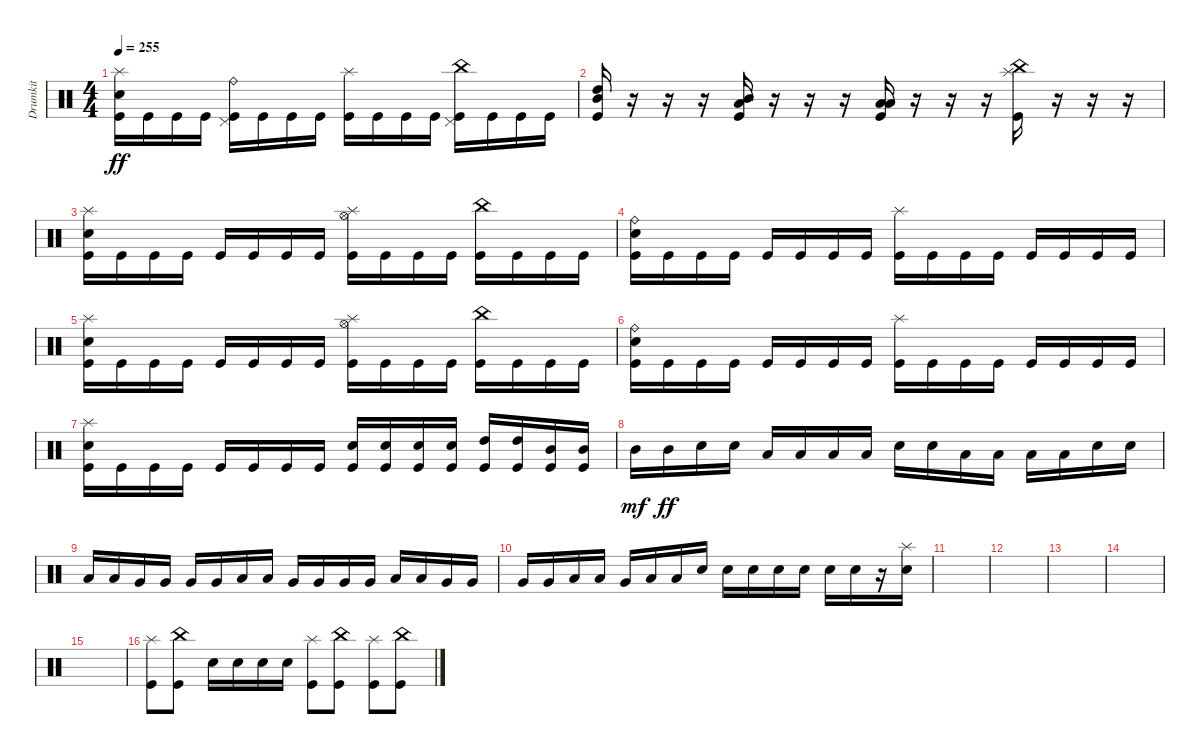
\track ("Drumkit" "Drumkit") {instrument percussion}
\staff {score}
\articulation defaults
\ts (4 4)
\tempo 255
\clef neutral
\ks c
("Splash (hit)" "Snare (hit) 2" "Kick (hit)").16{dy ff} "Kick (hit)".16 "Kick (hit)".16 "Kick (hit)".16 ("Pedal Hi-Hat (hit)" "Ride (bell)" "Kick (hit)").16 "Kick (hit)".16 "Kick (hit)".16 "Kick (hit)".16 ("Splash (hit)" "Kick (hit)").16 "Kick (hit)".16 "Kick (hit)".16 "Kick (hit)".16 ("Pedal Hi-Hat (hit)" "China (hit)" "Kick (hit)").16 "Kick (hit)".16 "Kick (hit)".16 "Kick (hit)".16 |
("High Tom (hit)" "Mid Tom (hit)" "Kick (hit)").16 r.16 r.16 r.16 ("Mid Tom (hit)" "Low Tom (hit)" "Kick (hit)").16 r.16 r.16 r.16 ("Low Floor Tom (hit)" "Low Tom (hit)" "Kick (hit)").16 r.16 r.16 r.16 ("Splash (hit)" "Kick (hit)" "China (hit)").16 r.16 r.16 r.16 |
("Splash (hit)" "Snare (hit) 2" "Kick (hit)").16 "Kick (hit)".16 "Kick (hit)".16 "Kick (hit)".16 "Kick (hit)".16 "Kick (hit)".16 "Kick (hit)".16 "Kick (hit)".16 ("Splash (hit)" "Hi-Hat (open)" "Kick (hit)").16 "Kick (hit)".16 "Kick (hit)".16 "Kick (hit)".16 ("China (hit)" "Kick (hit)").16 "Kick (hit)".16 "Kick (hit)".16 "Kick (hit)".16 |
("Snare (hit) 2" "Ride (bell)" "Kick (hit)").16 "Kick (hit)".16 "Kick (hit)".16 "Kick (hit)".16 "Kick (hit)".16 "Kick (hit)".16 "Kick (hit)".16 "Kick (hit)".16 ("Splash (hit)" "Kick (hit)").16 "Kick (hit)".16 "Kick (hit)".16 "Kick (hit)".16 "Kick (hit)".16 "Kick (hit)".16 "Kick (hit)".16 "Kick (hit)".16 |
("Splash (hit)" "Snare (hit) 2" "Kick (hit)").16 "Kick (hit)".16 "Kick (hit)".16 "Kick (hit)".16 "Kick (hit)".16 "Kick (hit)".16 "Kick (hit)".16 "Kick (hit)".16 ("Splash (hit)" "Hi-Hat (open)" "Kick (hit)").16 "Kick (hit)".16 "Kick (hit)".16 "Kick (hit)".16 ("China (hit)" "Kick (hit)").16 "Kick (hit)".16 "Kick (hit)".16 "Kick (hit)".16 |
("Snare (hit) 2" "Ride (bell)" "Kick (hit)").16 "Kick (hit)".16 "Kick (hit)".16 "Kick (hit)".16 "Kick (hit)".16 "Kick (hit)".16 "Kick (hit)".16 "Kick (hit)".16 ("Splash (hit)" "Kick (hit)").16 "Kick (hit)".16 "Kick (hit)".16 "Kick (hit)".16 "Kick (hit)".16 "Kick (hit)".16 "Kick (hit)".16 "Kick (hit)".16 |
("Splash (hit)" "Snare (hit) 2" "Kick (hit)").16 "Kick (hit)".16 "Kick (hit)".16 "Kick (hit)".16 "Kick (hit)".16 "Kick (hit)".16 "Kick (hit)".16 "Kick (hit)".16 ("Kick (hit)" "Snare (hit) 2").16 ("Kick (hit)" "Snare (hit) 2").16 ("Kick (hit)" "Snare (hit) 2").16 ("Kick (hit)" "Snare (hit) 2").16 ("Kick (hit)" "High Tom (hit)").16 ("Kick (hit)" "High Tom (hit)").16 ("Kick (hit)" "Mid Tom (hit)").16 ("Kick (hit)" "Mid Tom (hit)").16 |
"Mid Tom (hit)".16{dy mf} "Mid Tom (hit)".16{dy ff} "Snare (hit) 2".16 "Snare (hit) 2".16 "Low Tom (hit)".16 "Low Tom (hit)".16 "Low Tom (hit)".16 "Low Tom (hit)".16 "Snare (hit) 2".16 "Snare (hit) 2".16 "Low Tom (hit)".16 "Low Tom (hit)".16 "Low Tom (hit)".16 "Low Tom (hit)".16 "Snare (hit) 2".16 "Snare (hit) 2".16 |
"Low Tom (hit)".16 "Low Tom (hit)".16 "Very Low Tom (hit)".16 "Very Low Tom (hit)".16 "Very Low Tom (hit)".16 "Very Low Tom (hit)".16 "Low Tom (hit)".16 "Low Tom (hit)".16 "Very Low Tom (hit)".16 "Very Low Tom (hit)".16 "Very Low Tom (hit)".16 "Very Low Tom (hit)".16 "Low Floor Tom (hit)".16 "Low Floor Tom (hit)".16 "Very Low Tom (hit)".16 "Very Low Tom (hit)".16 |
"Very Low Tom (hit)".16 "Very Low Tom (hit)".16 "Low Floor Tom (hit)".16 "Low Floor Tom (hit)".16 "Very Low Tom (hit)".16 "Low Tom (hit)".16 "Low Tom (hit)".16 "Snare (hit) 2".16 "Snare (hit) 2".16 "Snare (hit) 2".16 "Snare (hit) 2".16 "Snare (hit) 2".16 "Snare (hit) 2".16 "Snare (hit) 2".16 r.16 ("Snare (hit) 2" "Splash (hit)").16 |
|
|
|
|
|
("Splash (hit)" "Kick (hit)").8 ("China (hit)" "Kick (hit)").8 "Snare (hit) 2".16 "Snare (hit) 2".16 "Snare (hit) 2".16 "Snare (hit) 2".16 ("Splash (hit)" "Kick (hit)").8 ("China (hit)" "Kick (hit)").8 ("Splash (hit)" "Kick (hit)").8 ("China (hit)" "Kick (hit)").8
